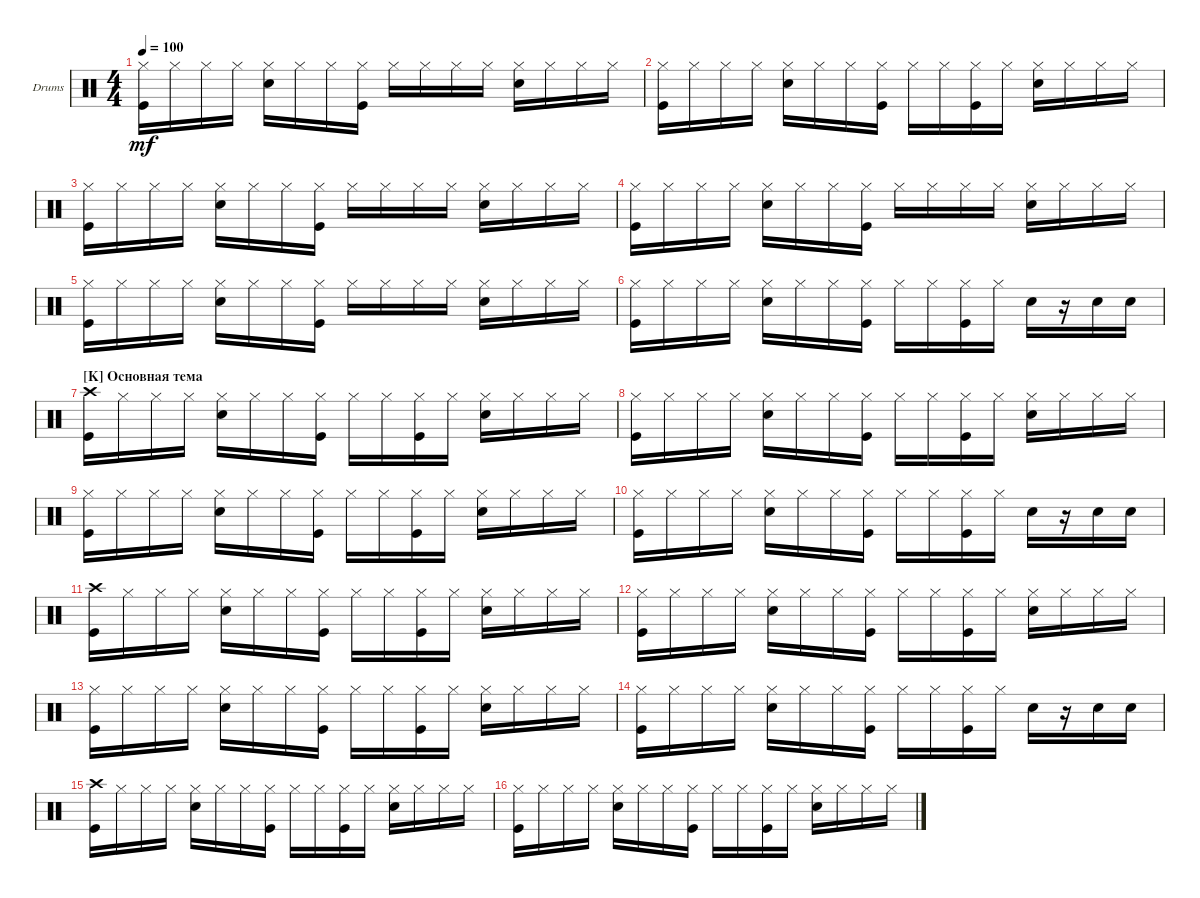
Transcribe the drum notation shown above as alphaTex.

\bracketExtendMode groupsimilarinstruments
\firstSystemTrackNameOrientation horizontal
\otherSystemsTrackNameOrientation horizontal
\track ("Drumkit" "Drums") {instrument percussion}
\staff {score}
\articulation defaults
\ts (4 4)
\tempo 100
\clef neutral
\ks c
("Kick (hit)" "Hi-Hat (closed)").16{dy mf} "Hi-Hat (closed)".16 "Hi-Hat (closed)".16 "Hi-Hat (closed)".16 ("Hi-Hat (closed)" "Snare (hit) 2").16 "Hi-Hat (closed)".16 "Hi-Hat (closed)".16 ("Hi-Hat (closed)" "Kick (hit)").16 "Hi-Hat (closed)".16 "Hi-Hat (closed)".16 "Hi-Hat (closed)".16 "Hi-Hat (closed)".16 ("Hi-Hat (closed)" "Snare (hit) 2").16 "Hi-Hat (closed)".16 "Hi-Hat (closed)".16 "Hi-Hat (closed)".16 |
("Kick (hit)" "Hi-Hat (closed)").16 "Hi-Hat (closed)".16 "Hi-Hat (closed)".16 "Hi-Hat (closed)".16 ("Hi-Hat (closed)" "Snare (hit) 2").16 "Hi-Hat (closed)".16 "Hi-Hat (closed)".16 ("Hi-Hat (closed)" "Kick (hit)").16 "Hi-Hat (closed)".16 "Hi-Hat (closed)".16 ("Hi-Hat (closed)" "Kick (hit)").16 "Hi-Hat (closed)".16 ("Hi-Hat (closed)" "Snare (hit) 2").16 "Hi-Hat (closed)".16 "Hi-Hat (closed)".16 "Hi-Hat (closed)".16 |
("Kick (hit)" "Hi-Hat (closed)").16 "Hi-Hat (closed)".16 "Hi-Hat (closed)".16 "Hi-Hat (closed)".16 ("Hi-Hat (closed)" "Snare (hit) 2").16 "Hi-Hat (closed)".16 "Hi-Hat (closed)".16 ("Hi-Hat (closed)" "Kick (hit)").16 "Hi-Hat (closed)".16 "Hi-Hat (closed)".16 "Hi-Hat (closed)".16 "Hi-Hat (closed)".16 ("Hi-Hat (closed)" "Snare (hit) 2").16 "Hi-Hat (closed)".16 "Hi-Hat (closed)".16 "Hi-Hat (closed)".16 |
("Kick (hit)" "Hi-Hat (closed)").16 "Hi-Hat (closed)".16 "Hi-Hat (closed)".16 "Hi-Hat (closed)".16 ("Hi-Hat (closed)" "Snare (hit) 2").16 "Hi-Hat (closed)".16 "Hi-Hat (closed)".16 ("Hi-Hat (closed)" "Kick (hit)").16 "Hi-Hat (closed)".16 "Hi-Hat (closed)".16 "Hi-Hat (closed)".16 "Hi-Hat (closed)".16 ("Hi-Hat (closed)" "Snare (hit) 2").16 "Hi-Hat (closed)".16 "Hi-Hat (closed)".16 "Hi-Hat (closed)".16 |
("Kick (hit)" "Hi-Hat (closed)").16 "Hi-Hat (closed)".16 "Hi-Hat (closed)".16 "Hi-Hat (closed)".16 ("Hi-Hat (closed)" "Snare (hit) 2").16 "Hi-Hat (closed)".16 "Hi-Hat (closed)".16 ("Hi-Hat (closed)" "Kick (hit)").16 "Hi-Hat (closed)".16 "Hi-Hat (closed)".16 "Hi-Hat (closed)".16 "Hi-Hat (closed)".16 ("Hi-Hat (closed)" "Snare (hit) 2").16 "Hi-Hat (closed)".16 "Hi-Hat (closed)".16 "Hi-Hat (closed)".16 |
("Kick (hit)" "Hi-Hat (closed)").16 "Hi-Hat (closed)".16 "Hi-Hat (closed)".16 "Hi-Hat (closed)".16 ("Hi-Hat (closed)" "Snare (hit) 2").16 "Hi-Hat (closed)".16 "Hi-Hat (closed)".16 ("Hi-Hat (closed)" "Kick (hit)").16 "Hi-Hat (closed)".16 "Hi-Hat (closed)".16 ("Hi-Hat (closed)" "Kick (hit)").16 "Hi-Hat (closed)".16 "Snare (hit) 2".16 r.16 "Snare (hit) 2".16 "Snare (hit) 2".16 |
\section ("K" "Основная тема")
("Kick (hit)" "Crash high (hit)").16 "Hi-Hat (closed)".16 "Hi-Hat (closed)".16 "Hi-Hat (closed)".16 ("Hi-Hat (closed)" "Snare (hit) 2").16 "Hi-Hat (closed)".16 "Hi-Hat (closed)".16 ("Hi-Hat (closed)" "Kick (hit)").16 "Hi-Hat (closed)".16 "Hi-Hat (closed)".16 ("Hi-Hat (closed)" "Kick (hit)").16 "Hi-Hat (closed)".16 ("Hi-Hat (closed)" "Snare (hit) 2").16 "Hi-Hat (closed)".16 "Hi-Hat (closed)".16 "Hi-Hat (closed)".16 |
("Kick (hit)" "Hi-Hat (closed)").16 "Hi-Hat (closed)".16 "Hi-Hat (closed)".16 "Hi-Hat (closed)".16 ("Hi-Hat (closed)" "Snare (hit) 2").16 "Hi-Hat (closed)".16 "Hi-Hat (closed)".16 ("Hi-Hat (closed)" "Kick (hit)").16 "Hi-Hat (closed)".16 "Hi-Hat (closed)".16 ("Hi-Hat (closed)" "Kick (hit)").16 "Hi-Hat (closed)".16 ("Hi-Hat (closed)" "Snare (hit) 2").16 "Hi-Hat (closed)".16 "Hi-Hat (closed)".16 "Hi-Hat (closed)".16 |
("Kick (hit)" "Hi-Hat (closed)").16 "Hi-Hat (closed)".16 "Hi-Hat (closed)".16 "Hi-Hat (closed)".16 ("Hi-Hat (closed)" "Snare (hit) 2").16 "Hi-Hat (closed)".16 "Hi-Hat (closed)".16 ("Hi-Hat (closed)" "Kick (hit)").16 "Hi-Hat (closed)".16 "Hi-Hat (closed)".16 ("Hi-Hat (closed)" "Kick (hit)").16 "Hi-Hat (closed)".16 ("Hi-Hat (closed)" "Snare (hit) 2").16 "Hi-Hat (closed)".16 "Hi-Hat (closed)".16 "Hi-Hat (closed)".16 |
("Kick (hit)" "Hi-Hat (closed)").16 "Hi-Hat (closed)".16 "Hi-Hat (closed)".16 "Hi-Hat (closed)".16 ("Hi-Hat (closed)" "Snare (hit) 2").16 "Hi-Hat (closed)".16 "Hi-Hat (closed)".16 ("Hi-Hat (closed)" "Kick (hit)").16 "Hi-Hat (closed)".16 "Hi-Hat (closed)".16 ("Hi-Hat (closed)" "Kick (hit)").16 "Hi-Hat (closed)".16 "Snare (hit) 2".16 r.16 "Snare (hit) 2".16 "Snare (hit) 2".16 |
("Kick (hit)" "Crash high (hit)").16 "Hi-Hat (closed)".16 "Hi-Hat (closed)".16 "Hi-Hat (closed)".16 ("Hi-Hat (closed)" "Snare (hit) 2").16 "Hi-Hat (closed)".16 "Hi-Hat (closed)".16 ("Hi-Hat (closed)" "Kick (hit)").16 "Hi-Hat (closed)".16 "Hi-Hat (closed)".16 ("Hi-Hat (closed)" "Kick (hit)").16 "Hi-Hat (closed)".16 ("Hi-Hat (closed)" "Snare (hit) 2").16 "Hi-Hat (closed)".16 "Hi-Hat (closed)".16 "Hi-Hat (closed)".16 |
("Kick (hit)" "Hi-Hat (closed)").16 "Hi-Hat (closed)".16 "Hi-Hat (closed)".16 "Hi-Hat (closed)".16 ("Hi-Hat (closed)" "Snare (hit) 2").16 "Hi-Hat (closed)".16 "Hi-Hat (closed)".16 ("Hi-Hat (closed)" "Kick (hit)").16 "Hi-Hat (closed)".16 "Hi-Hat (closed)".16 ("Hi-Hat (closed)" "Kick (hit)").16 "Hi-Hat (closed)".16 ("Hi-Hat (closed)" "Snare (hit) 2").16 "Hi-Hat (closed)".16 "Hi-Hat (closed)".16 "Hi-Hat (closed)".16 |
("Kick (hit)" "Hi-Hat (closed)").16 "Hi-Hat (closed)".16 "Hi-Hat (closed)".16 "Hi-Hat (closed)".16 ("Hi-Hat (closed)" "Snare (hit) 2").16 "Hi-Hat (closed)".16 "Hi-Hat (closed)".16 ("Hi-Hat (closed)" "Kick (hit)").16 "Hi-Hat (closed)".16 "Hi-Hat (closed)".16 ("Hi-Hat (closed)" "Kick (hit)").16 "Hi-Hat (closed)".16 ("Hi-Hat (closed)" "Snare (hit) 2").16 "Hi-Hat (closed)".16 "Hi-Hat (closed)".16 "Hi-Hat (closed)".16 |
("Kick (hit)" "Hi-Hat (closed)").16 "Hi-Hat (closed)".16 "Hi-Hat (closed)".16 "Hi-Hat (closed)".16 ("Hi-Hat (closed)" "Snare (hit) 2").16 "Hi-Hat (closed)".16 "Hi-Hat (closed)".16 ("Hi-Hat (closed)" "Kick (hit)").16 "Hi-Hat (closed)".16 "Hi-Hat (closed)".16 ("Hi-Hat (closed)" "Kick (hit)").16 "Hi-Hat (closed)".16 "Snare (hit) 2".16 r.16 "Snare (hit) 2".16 "Snare (hit) 2".16 |
("Kick (hit)" "Crash high (hit)").16 "Hi-Hat (closed)".16 "Hi-Hat (closed)".16 "Hi-Hat (closed)".16 ("Hi-Hat (closed)" "Snare (hit) 2").16 "Hi-Hat (closed)".16 "Hi-Hat (closed)".16 ("Hi-Hat (closed)" "Kick (hit)").16 "Hi-Hat (closed)".16 "Hi-Hat (closed)".16 ("Hi-Hat (closed)" "Kick (hit)").16 "Hi-Hat (closed)".16 ("Hi-Hat (closed)" "Snare (hit) 2").16 "Hi-Hat (closed)".16 "Hi-Hat (closed)".16 "Hi-Hat (closed)".16 |
("Kick (hit)" "Hi-Hat (closed)").16 "Hi-Hat (closed)".16 "Hi-Hat (closed)".16 "Hi-Hat (closed)".16 ("Hi-Hat (closed)" "Snare (hit) 2").16 "Hi-Hat (closed)".16 "Hi-Hat (closed)".16 ("Hi-Hat (closed)" "Kick (hit)").16 "Hi-Hat (closed)".16 "Hi-Hat (closed)".16 ("Hi-Hat (closed)" "Kick (hit)").16 "Hi-Hat (closed)".16 ("Hi-Hat (closed)" "Snare (hit) 2").16 "Hi-Hat (closed)".16 "Hi-Hat (closed)".16 "Hi-Hat (closed)".16
